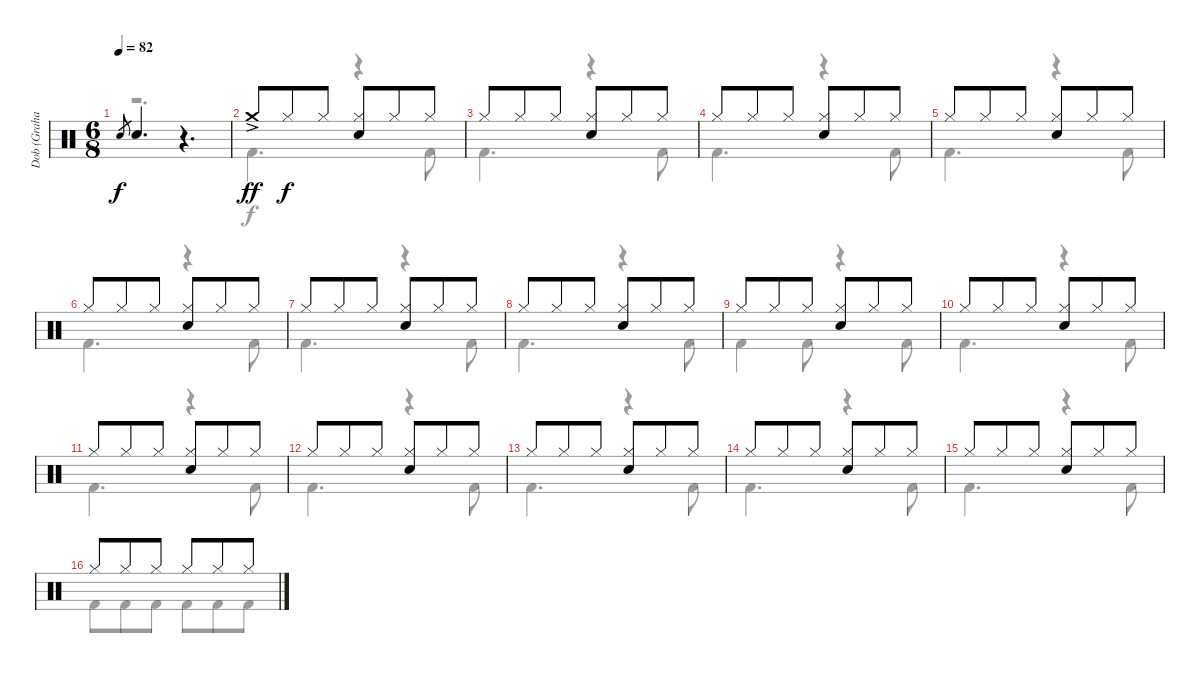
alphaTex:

\track ("Dob (Graham Walker)" "Dob (Graha") {instrument percussion}
\staff {score}
\articulation defaults
\voice
\ts (6 8)
\tempo 82
\clef neutral
\ks c "Electric Snare (hit)".8{gr dy f} "Electric Snare (hit)".4{d}
r.4{d} |
"Crash medium (hit)"{ac}.8{dy ff} "Hi-Hat (closed)".8{dy f} "Hi-Hat (closed)".8 ("Hi-Hat (closed)" "Electric Snare (hit)").8 "Hi-Hat (closed)".8 "Hi-Hat (closed)".8 |
"Hi-Hat (closed)".8 "Hi-Hat (closed)".8 "Hi-Hat (closed)".8 ("Hi-Hat (closed)" "Electric Snare (hit)").8 "Hi-Hat (closed)".8 "Hi-Hat (closed)".8 |
"Hi-Hat (closed)".8 "Hi-Hat (closed)".8 "Hi-Hat (closed)".8 ("Hi-Hat (closed)" "Electric Snare (hit)").8 "Hi-Hat (closed)".8 "Hi-Hat (closed)".8 |
"Hi-Hat (closed)".8 "Hi-Hat (closed)".8 "Hi-Hat (closed)".8 ("Hi-Hat (closed)" "Electric Snare (hit)").8 "Hi-Hat (closed)".8 "Hi-Hat (closed)".8 |
"Hi-Hat (closed)".8 "Hi-Hat (closed)".8 "Hi-Hat (closed)".8 ("Hi-Hat (closed)" "Electric Snare (hit)").8 "Hi-Hat (closed)".8 "Hi-Hat (closed)".8 |
"Hi-Hat (closed)".8 "Hi-Hat (closed)".8 "Hi-Hat (closed)".8 ("Hi-Hat (closed)" "Electric Snare (hit)").8 "Hi-Hat (closed)".8 "Hi-Hat (closed)".8 |
"Hi-Hat (closed)".8 "Hi-Hat (closed)".8 "Hi-Hat (closed)".8 ("Hi-Hat (closed)" "Electric Snare (hit)").8 "Hi-Hat (closed)".8 "Hi-Hat (closed)".8 |
"Hi-Hat (closed)".8 "Hi-Hat (closed)".8 "Hi-Hat (closed)".8 ("Hi-Hat (closed)" "Electric Snare (hit)").8 "Hi-Hat (closed)".8 "Hi-Hat (closed)".8 |
"Hi-Hat (closed)".8 "Hi-Hat (closed)".8 "Hi-Hat (closed)".8 ("Hi-Hat (closed)" "Electric Snare (hit)").8 "Hi-Hat (closed)".8 "Hi-Hat (closed)".8 |
"Hi-Hat (closed)".8 "Hi-Hat (closed)".8 "Hi-Hat (closed)".8 ("Hi-Hat (closed)" "Electric Snare (hit)").8 "Hi-Hat (closed)".8 "Hi-Hat (closed)".8 |
"Hi-Hat (closed)".8 "Hi-Hat (closed)".8 "Hi-Hat (closed)".8 ("Hi-Hat (closed)" "Electric Snare (hit)").8 "Hi-Hat (closed)".8 "Hi-Hat (closed)".8 |
"Hi-Hat (closed)".8 "Hi-Hat (closed)".8 "Hi-Hat (closed)".8 ("Hi-Hat (closed)" "Electric Snare (hit)").8 "Hi-Hat (closed)".8 "Hi-Hat (closed)".8 |
"Hi-Hat (closed)".8 "Hi-Hat (closed)".8 "Hi-Hat (closed)".8 ("Hi-Hat (closed)" "Electric Snare (hit)").8 "Hi-Hat (closed)".8 "Hi-Hat (closed)".8 |
"Hi-Hat (closed)".8 "Hi-Hat (closed)".8 "Hi-Hat (closed)".8 ("Hi-Hat (closed)" "Electric Snare (hit)").8 "Hi-Hat (closed)".8 "Hi-Hat (closed)".8 |
"Hi-Hat (closed)".8 "Hi-Hat (closed)".8 "Hi-Hat (closed)".8 "Hi-Hat (closed)".8 "Hi-Hat (closed)".8 "Hi-Hat (closed)".8
\voice
\clef neutral
\ottava regular
\simile none
\ks c
r.2{d dy f} |
"Kick (hit) 2".4{d} r.4 "Kick (hit) 2".8 |
"Kick (hit) 2".4{d} r.4 "Kick (hit) 2".8 |
"Kick (hit) 2".4{d} r.4 "Kick (hit) 2".8 |
"Kick (hit) 2".4{d} r.4 "Kick (hit) 2".8 |
"Kick (hit) 2".4{d} r.4 "Kick (hit) 2".8 |
"Kick (hit) 2".4{d} r.4 "Kick (hit) 2".8 |
"Kick (hit) 2".4{d} r.4 "Kick (hit) 2".8 |
"Kick (hit) 2".4 "Kick (hit) 2".8 r.4 "Kick (hit) 2".8 |
"Kick (hit) 2".4{d} r.4 "Kick (hit) 2".8 |
"Kick (hit) 2".4{d} r.4 "Kick (hit) 2".8 |
"Kick (hit) 2".4{d} r.4 "Kick (hit) 2".8 |
"Kick (hit) 2".4{d} r.4 "Kick (hit) 2".8 |
"Kick (hit) 2".4{d} r.4 "Kick (hit) 2".8 |
"Kick (hit) 2".4{d} r.4 "Kick (hit) 2".8 |
"Kick (hit) 2".8 "Kick (hit) 2".8 "Kick (hit) 2".8 "Kick (hit) 2".8 "Kick (hit) 2".8 "Kick (hit) 2".8
